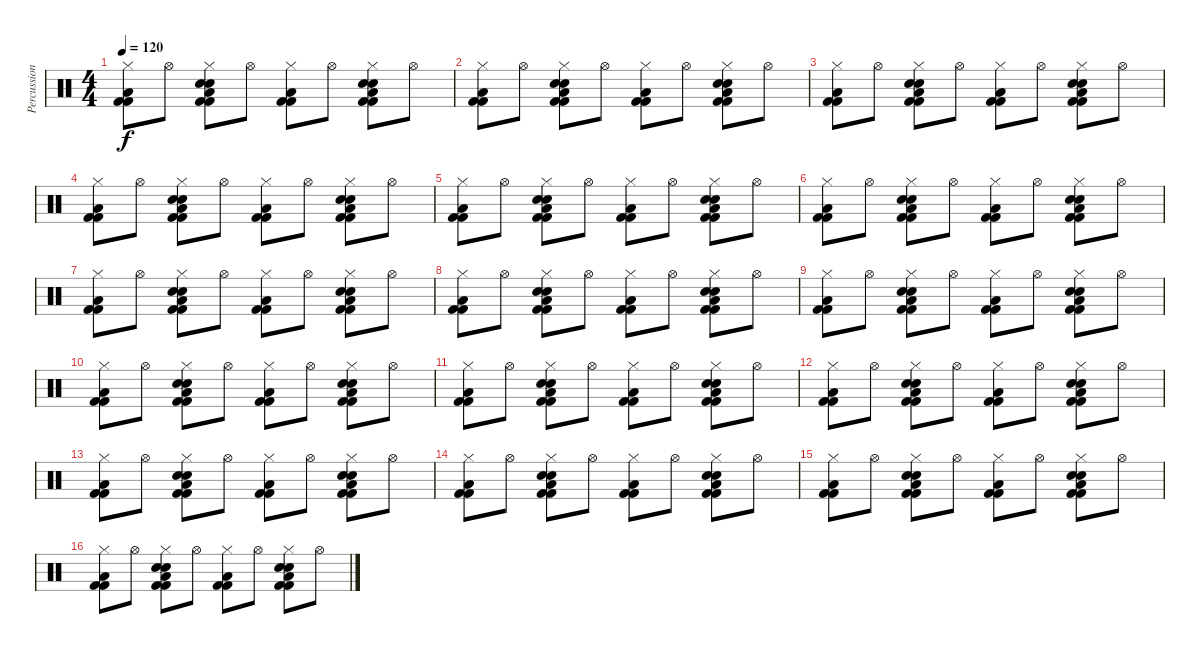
\track ("Percussions" "Percussion") {instrument percussion}
\staff {score}
\articulation defaults
\ts (4 4)
\tempo 120
\clef neutral
\ks c
("Kick (hit) 2" "Hi-Hat (closed)" "Low Floor Tom (hit)" "Kick (hit) 2").8{dy f} "Hi-Hat (open)".8 ("Kick (hit) 2" "Hi-Hat (closed)" "Electric Snare (hit)" "Hand Clap (hit)" "Low Floor Tom (hit)" "Kick (hit) 2").8 "Hi-Hat (open)".8 ("Kick (hit) 2" "Hi-Hat (closed)" "Low Floor Tom (hit)" "Kick (hit) 2").8 "Hi-Hat (open)".8 ("Kick (hit) 2" "Hi-Hat (closed)" "Electric Snare (hit)" "Hand Clap (hit)" "Low Floor Tom (hit)" "Kick (hit) 2").8 "Hi-Hat (open)".8 |
("Kick (hit) 2" "Hi-Hat (closed)" "Low Floor Tom (hit)" "Kick (hit) 2").8 "Hi-Hat (open)".8 ("Kick (hit) 2" "Hi-Hat (closed)" "Electric Snare (hit)" "Hand Clap (hit)" "Low Floor Tom (hit)" "Kick (hit) 2").8 "Hi-Hat (open)".8 ("Kick (hit) 2" "Hi-Hat (closed)" "Low Floor Tom (hit)" "Kick (hit) 2").8 "Hi-Hat (open)".8 ("Kick (hit) 2" "Hi-Hat (closed)" "Electric Snare (hit)" "Hand Clap (hit)" "Low Floor Tom (hit)" "Kick (hit) 2").8 "Hi-Hat (open)".8 |
("Kick (hit) 2" "Hi-Hat (closed)" "Low Floor Tom (hit)" "Kick (hit) 2").8 "Hi-Hat (open)".8 ("Kick (hit) 2" "Hi-Hat (closed)" "Electric Snare (hit)" "Hand Clap (hit)" "Low Floor Tom (hit)" "Kick (hit) 2").8 "Hi-Hat (open)".8 ("Kick (hit) 2" "Hi-Hat (closed)" "Low Floor Tom (hit)" "Kick (hit) 2").8 "Hi-Hat (open)".8 ("Kick (hit) 2" "Hi-Hat (closed)" "Electric Snare (hit)" "Hand Clap (hit)" "Low Floor Tom (hit)" "Kick (hit) 2").8 "Hi-Hat (open)".8 |
("Kick (hit) 2" "Hi-Hat (closed)" "Low Floor Tom (hit)" "Kick (hit) 2").8 "Hi-Hat (open)".8 ("Kick (hit) 2" "Hi-Hat (closed)" "Electric Snare (hit)" "Hand Clap (hit)" "Low Floor Tom (hit)" "Kick (hit) 2").8 "Hi-Hat (open)".8 ("Kick (hit) 2" "Hi-Hat (closed)" "Low Floor Tom (hit)" "Kick (hit) 2").8 "Hi-Hat (open)".8 ("Kick (hit) 2" "Hi-Hat (closed)" "Electric Snare (hit)" "Hand Clap (hit)" "Low Floor Tom (hit)" "Kick (hit) 2").8 "Hi-Hat (open)".8 |
("Kick (hit) 2" "Hi-Hat (closed)" "Low Floor Tom (hit)" "Kick (hit) 2").8 "Hi-Hat (open)".8 ("Kick (hit) 2" "Hi-Hat (closed)" "Electric Snare (hit)" "Hand Clap (hit)" "Low Floor Tom (hit)" "Kick (hit) 2").8 "Hi-Hat (open)".8 ("Kick (hit) 2" "Hi-Hat (closed)" "Low Floor Tom (hit)" "Kick (hit) 2").8 "Hi-Hat (open)".8 ("Kick (hit) 2" "Hi-Hat (closed)" "Electric Snare (hit)" "Hand Clap (hit)" "Low Floor Tom (hit)" "Kick (hit) 2").8 "Hi-Hat (open)".8 |
("Kick (hit) 2" "Hi-Hat (closed)" "Low Floor Tom (hit)" "Kick (hit) 2").8 "Hi-Hat (open)".8 ("Kick (hit) 2" "Hi-Hat (closed)" "Electric Snare (hit)" "Hand Clap (hit)" "Low Floor Tom (hit)" "Kick (hit) 2").8 "Hi-Hat (open)".8 ("Kick (hit) 2" "Hi-Hat (closed)" "Low Floor Tom (hit)" "Kick (hit) 2").8 "Hi-Hat (open)".8 ("Kick (hit) 2" "Hi-Hat (closed)" "Electric Snare (hit)" "Hand Clap (hit)" "Low Floor Tom (hit)" "Kick (hit) 2").8 "Hi-Hat (open)".8 |
("Kick (hit) 2" "Hi-Hat (closed)" "Low Floor Tom (hit)" "Kick (hit) 2").8 "Hi-Hat (open)".8 ("Kick (hit) 2" "Hi-Hat (closed)" "Electric Snare (hit)" "Hand Clap (hit)" "Low Floor Tom (hit)" "Kick (hit) 2").8 "Hi-Hat (open)".8 ("Kick (hit) 2" "Hi-Hat (closed)" "Low Floor Tom (hit)" "Kick (hit) 2").8 "Hi-Hat (open)".8 ("Kick (hit) 2" "Hi-Hat (closed)" "Electric Snare (hit)" "Hand Clap (hit)" "Low Floor Tom (hit)" "Kick (hit) 2").8 "Hi-Hat (open)".8 |
("Kick (hit) 2" "Hi-Hat (closed)" "Low Floor Tom (hit)" "Kick (hit) 2").8 "Hi-Hat (open)".8 ("Kick (hit) 2" "Hi-Hat (closed)" "Electric Snare (hit)" "Hand Clap (hit)" "Low Floor Tom (hit)" "Kick (hit) 2").8 "Hi-Hat (open)".8 ("Kick (hit) 2" "Hi-Hat (closed)" "Low Floor Tom (hit)" "Kick (hit) 2").8 "Hi-Hat (open)".8 ("Kick (hit) 2" "Hi-Hat (closed)" "Electric Snare (hit)" "Hand Clap (hit)" "Low Floor Tom (hit)" "Kick (hit) 2").8 "Hi-Hat (open)".8 |
("Kick (hit) 2" "Hi-Hat (closed)" "Low Floor Tom (hit)" "Kick (hit) 2").8 "Hi-Hat (open)".8 ("Kick (hit) 2" "Hi-Hat (closed)" "Electric Snare (hit)" "Hand Clap (hit)" "Low Floor Tom (hit)" "Kick (hit) 2").8 "Hi-Hat (open)".8 ("Kick (hit) 2" "Hi-Hat (closed)" "Low Floor Tom (hit)" "Kick (hit) 2").8 "Hi-Hat (open)".8 ("Kick (hit) 2" "Hi-Hat (closed)" "Electric Snare (hit)" "Hand Clap (hit)" "Low Floor Tom (hit)" "Kick (hit) 2").8 "Hi-Hat (open)".8 |
("Kick (hit) 2" "Hi-Hat (closed)" "Low Floor Tom (hit)" "Kick (hit) 2").8 "Hi-Hat (open)".8 ("Kick (hit) 2" "Hi-Hat (closed)" "Electric Snare (hit)" "Hand Clap (hit)" "Low Floor Tom (hit)" "Kick (hit) 2").8 "Hi-Hat (open)".8 ("Kick (hit) 2" "Hi-Hat (closed)" "Low Floor Tom (hit)" "Kick (hit) 2").8 "Hi-Hat (open)".8 ("Kick (hit) 2" "Hi-Hat (closed)" "Electric Snare (hit)" "Hand Clap (hit)" "Low Floor Tom (hit)" "Kick (hit) 2").8 "Hi-Hat (open)".8 |
("Kick (hit) 2" "Hi-Hat (closed)" "Low Floor Tom (hit)" "Kick (hit) 2").8 "Hi-Hat (open)".8 ("Kick (hit) 2" "Hi-Hat (closed)" "Electric Snare (hit)" "Hand Clap (hit)" "Low Floor Tom (hit)" "Kick (hit) 2").8 "Hi-Hat (open)".8 ("Kick (hit) 2" "Hi-Hat (closed)" "Low Floor Tom (hit)" "Kick (hit) 2").8 "Hi-Hat (open)".8 ("Kick (hit) 2" "Hi-Hat (closed)" "Electric Snare (hit)" "Hand Clap (hit)" "Low Floor Tom (hit)" "Kick (hit) 2").8 "Hi-Hat (open)".8 |
("Kick (hit) 2" "Hi-Hat (closed)" "Low Floor Tom (hit)" "Kick (hit) 2").8 "Hi-Hat (open)".8 ("Kick (hit) 2" "Hi-Hat (closed)" "Electric Snare (hit)" "Hand Clap (hit)" "Low Floor Tom (hit)" "Kick (hit) 2").8 "Hi-Hat (open)".8 ("Kick (hit) 2" "Hi-Hat (closed)" "Low Floor Tom (hit)" "Kick (hit) 2").8 "Hi-Hat (open)".8 ("Kick (hit) 2" "Hi-Hat (closed)" "Electric Snare (hit)" "Hand Clap (hit)" "Low Floor Tom (hit)" "Kick (hit) 2").8 "Hi-Hat (open)".8 |
("Kick (hit) 2" "Hi-Hat (closed)" "Low Floor Tom (hit)" "Kick (hit) 2").8 "Hi-Hat (open)".8 ("Kick (hit) 2" "Hi-Hat (closed)" "Electric Snare (hit)" "Hand Clap (hit)" "Low Floor Tom (hit)" "Kick (hit) 2").8 "Hi-Hat (open)".8 ("Kick (hit) 2" "Hi-Hat (closed)" "Low Floor Tom (hit)" "Kick (hit) 2").8 "Hi-Hat (open)".8 ("Kick (hit) 2" "Hi-Hat (closed)" "Electric Snare (hit)" "Hand Clap (hit)" "Low Floor Tom (hit)" "Kick (hit) 2").8 "Hi-Hat (open)".8 |
("Kick (hit) 2" "Hi-Hat (closed)" "Low Floor Tom (hit)" "Kick (hit) 2").8 "Hi-Hat (open)".8 ("Kick (hit) 2" "Hi-Hat (closed)" "Electric Snare (hit)" "Hand Clap (hit)" "Low Floor Tom (hit)" "Kick (hit) 2").8 "Hi-Hat (open)".8 ("Kick (hit) 2" "Hi-Hat (closed)" "Low Floor Tom (hit)" "Kick (hit) 2").8 "Hi-Hat (open)".8 ("Kick (hit) 2" "Hi-Hat (closed)" "Electric Snare (hit)" "Hand Clap (hit)" "Low Floor Tom (hit)" "Kick (hit) 2").8 "Hi-Hat (open)".8 |
("Kick (hit) 2" "Hi-Hat (closed)" "Low Floor Tom (hit)" "Kick (hit) 2").8 "Hi-Hat (open)".8 ("Kick (hit) 2" "Hi-Hat (closed)" "Electric Snare (hit)" "Hand Clap (hit)" "Low Floor Tom (hit)" "Kick (hit) 2").8 "Hi-Hat (open)".8 ("Kick (hit) 2" "Hi-Hat (closed)" "Low Floor Tom (hit)" "Kick (hit) 2").8 "Hi-Hat (open)".8 ("Kick (hit) 2" "Hi-Hat (closed)" "Electric Snare (hit)" "Hand Clap (hit)" "Low Floor Tom (hit)" "Kick (hit) 2").8 "Hi-Hat (open)".8 |
("Kick (hit) 2" "Hi-Hat (closed)" "Low Floor Tom (hit)" "Kick (hit) 2").8 "Hi-Hat (open)".8 ("Kick (hit) 2" "Hi-Hat (closed)" "Electric Snare (hit)" "Hand Clap (hit)" "Low Floor Tom (hit)" "Kick (hit) 2").8 "Hi-Hat (open)".8 ("Kick (hit) 2" "Hi-Hat (closed)" "Low Floor Tom (hit)" "Kick (hit) 2").8 "Hi-Hat (open)".8 ("Kick (hit) 2" "Hi-Hat (closed)" "Electric Snare (hit)" "Hand Clap (hit)" "Low Floor Tom (hit)" "Kick (hit) 2").8 "Hi-Hat (open)".8
